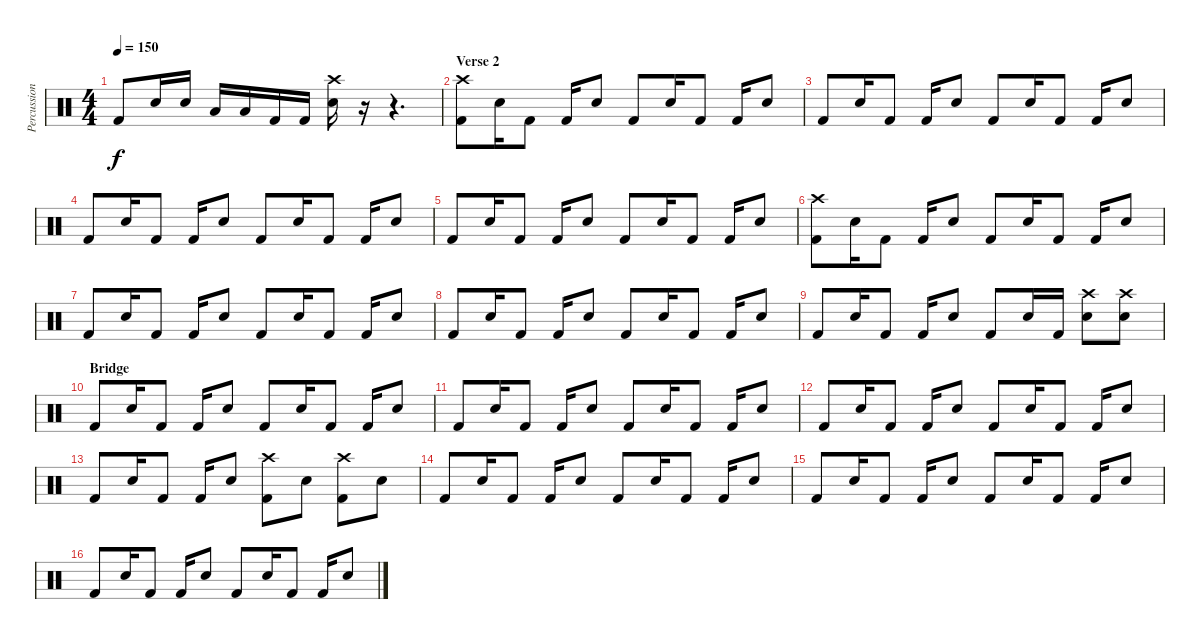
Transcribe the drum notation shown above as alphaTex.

\track ("Percussion" "Percussion") {instrument percussion}
\staff {score}
\articulation defaults
\ts (4 4)
\tempo 150
\clef neutral
\ks c "Kick (hit) 2".8{dy f} "Snare (hit) 2".16 "Snare (hit) 2".16 "Low Tom (hit)".16 "Low Tom (hit)".16 "Kick (hit) 2".16 "Kick (hit) 2".16
("Crash high (hit)" "Snare (hit) 2").16 r.16 r.4{d} |
\section ("" "Verse 2")
("Crash high (hit)" "Kick (hit) 2").8 "Snare (hit) 2".16 "Kick (hit) 2".8 "Kick (hit) 2".16 "Snare (hit) 2".8 "Kick (hit) 2".8 "Snare (hit) 2".16 "Kick (hit) 2".8 "Kick (hit) 2".16 "Snare (hit) 2".8 |
"Kick (hit) 2".8 "Snare (hit) 2".16 "Kick (hit) 2".8 "Kick (hit) 2".16 "Snare (hit) 2".8 "Kick (hit) 2".8 "Snare (hit) 2".16 "Kick (hit) 2".8 "Kick (hit) 2".16 "Snare (hit) 2".8 |
"Kick (hit) 2".8 "Snare (hit) 2".16 "Kick (hit) 2".8 "Kick (hit) 2".16 "Snare (hit) 2".8 "Kick (hit) 2".8 "Snare (hit) 2".16 "Kick (hit) 2".8 "Kick (hit) 2".16 "Snare (hit) 2".8 |
"Kick (hit) 2".8 "Snare (hit) 2".16 "Kick (hit) 2".8 "Kick (hit) 2".16 "Snare (hit) 2".8 "Kick (hit) 2".8 "Snare (hit) 2".16 "Kick (hit) 2".8 "Kick (hit) 2".16 "Snare (hit) 2".8 |
("Crash high (hit)" "Kick (hit) 2").8 "Snare (hit) 2".16 "Kick (hit) 2".8 "Kick (hit) 2".16 "Snare (hit) 2".8 "Kick (hit) 2".8 "Snare (hit) 2".16 "Kick (hit) 2".8 "Kick (hit) 2".16 "Snare (hit) 2".8 |
"Kick (hit) 2".8 "Snare (hit) 2".16 "Kick (hit) 2".8 "Kick (hit) 2".16 "Snare (hit) 2".8 "Kick (hit) 2".8 "Snare (hit) 2".16 "Kick (hit) 2".8 "Kick (hit) 2".16 "Snare (hit) 2".8 |
"Kick (hit) 2".8 "Snare (hit) 2".16 "Kick (hit) 2".8 "Kick (hit) 2".16 "Snare (hit) 2".8 "Kick (hit) 2".8 "Snare (hit) 2".16 "Kick (hit) 2".8 "Kick (hit) 2".16 "Snare (hit) 2".8 |
"Kick (hit) 2".8 "Snare (hit) 2".16 "Kick (hit) 2".8 "Kick (hit) 2".16 "Snare (hit) 2".8 "Kick (hit) 2".8 "Snare (hit) 2".16 "Kick (hit) 2".16 ("Crash high (hit)" "Snare (hit) 2").8 ("Crash high (hit)" "Snare (hit) 2").8 |
\section ("" "Bridge")
"Kick (hit) 2".8 "Snare (hit) 2".16 "Kick (hit) 2".8 "Kick (hit) 2".16 "Snare (hit) 2".8 "Kick (hit) 2".8 "Snare (hit) 2".16 "Kick (hit) 2".8 "Kick (hit) 2".16 "Snare (hit) 2".8 |
"Kick (hit) 2".8 "Snare (hit) 2".16 "Kick (hit) 2".8 "Kick (hit) 2".16 "Snare (hit) 2".8 "Kick (hit) 2".8 "Snare (hit) 2".16 "Kick (hit) 2".8 "Kick (hit) 2".16 "Snare (hit) 2".8 |
"Kick (hit) 2".8 "Snare (hit) 2".16 "Kick (hit) 2".8 "Kick (hit) 2".16 "Snare (hit) 2".8 "Kick (hit) 2".8 "Snare (hit) 2".16 "Kick (hit) 2".8 "Kick (hit) 2".16 "Snare (hit) 2".8 |
"Kick (hit) 2".8 "Snare (hit) 2".16 "Kick (hit) 2".8 "Kick (hit) 2".16 "Snare (hit) 2".8 ("Crash high (hit)" "Kick (hit) 2").8 "Snare (hit) 2".8 ("Crash high (hit)" "Kick (hit) 2").8 "Snare (hit) 2".8 |
"Kick (hit) 2".8 "Snare (hit) 2".16 "Kick (hit) 2".8 "Kick (hit) 2".16 "Snare (hit) 2".8 "Kick (hit) 2".8 "Snare (hit) 2".16 "Kick (hit) 2".8 "Kick (hit) 2".16 "Snare (hit) 2".8 |
"Kick (hit) 2".8 "Snare (hit) 2".16 "Kick (hit) 2".8 "Kick (hit) 2".16 "Snare (hit) 2".8 "Kick (hit) 2".8 "Snare (hit) 2".16 "Kick (hit) 2".8 "Kick (hit) 2".16 "Snare (hit) 2".8 |
"Kick (hit) 2".8 "Snare (hit) 2".16 "Kick (hit) 2".8 "Kick (hit) 2".16 "Snare (hit) 2".8 "Kick (hit) 2".8 "Snare (hit) 2".16 "Kick (hit) 2".8 "Kick (hit) 2".16 "Snare (hit) 2".8
